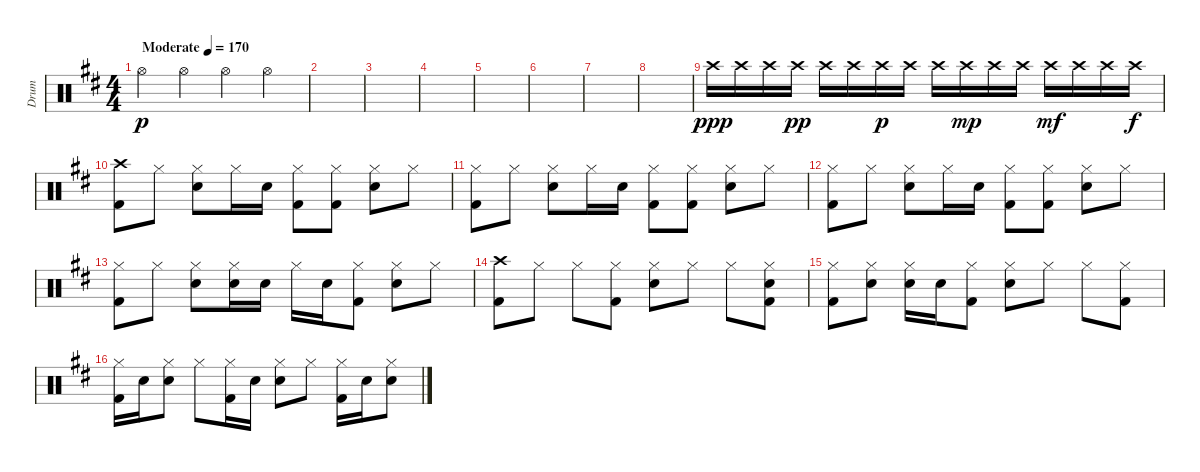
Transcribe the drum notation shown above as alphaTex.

\track ("Drum" "Drum") {instrument percussion}
\staff {score}
\articulation defaults
\ts (4 4)
\tempo (170 "Moderate")
\clef neutral
\ks d "Hi-Hat (open)".4{dy p} "Hi-Hat (open)".4 "Hi-Hat (open)".4 "Hi-Hat (open)".4
|
|
|
|
|
|
|
|
"Crash high (hit)".16{dy ppp volume 13} "Crash high (hit)".16 "Crash high (hit)".16 "Crash high (hit)".16{dy pp} "Crash high (hit)".16 "Crash high (hit)".16 "Crash high (hit)".16{dy p} "Crash high (hit)".16 "Crash high (hit)".16 "Crash high (hit)".16{dy mp} "Crash high (hit)".16 "Crash high (hit)".16 "Crash high (hit)".16{dy mf} "Crash high (hit)".16 "Crash high (hit)".16 "Crash high (hit)".16{dy f} |
("Crash high (hit)" "Kick (hit) 2").8 "Hi-Hat (closed)".8 ("Hi-Hat (closed)" "Electric Snare (hit)").8 "Hi-Hat (closed)".16 "Electric Snare (hit)".16 ("Hi-Hat (closed)" "Kick (hit) 2").8 ("Hi-Hat (closed)" "Kick (hit) 2").8 ("Hi-Hat (closed)" "Electric Snare (hit)").8 "Hi-Hat (closed)".8 |
("Hi-Hat (closed)" "Kick (hit) 2").8 "Hi-Hat (closed)".8 ("Hi-Hat (closed)" "Electric Snare (hit)").8 "Hi-Hat (closed)".16 "Electric Snare (hit)".16 ("Hi-Hat (closed)" "Kick (hit) 2").8 ("Hi-Hat (closed)" "Kick (hit) 2").8 ("Hi-Hat (closed)" "Electric Snare (hit)").8 "Hi-Hat (closed)".8 |
("Hi-Hat (closed)" "Kick (hit) 2").8 "Hi-Hat (closed)".8 ("Hi-Hat (closed)" "Electric Snare (hit)").8 "Hi-Hat (closed)".16 "Electric Snare (hit)".16 ("Hi-Hat (closed)" "Kick (hit) 2").8 ("Hi-Hat (closed)" "Kick (hit) 2").8 ("Hi-Hat (closed)" "Electric Snare (hit)").8 "Hi-Hat (closed)".8 |
("Hi-Hat (closed)" "Kick (hit) 2").8 "Hi-Hat (closed)".8 ("Hi-Hat (closed)" "Electric Snare (hit)").8 ("Hi-Hat (closed)" "Electric Snare (hit)").16 "Electric Snare (hit)".16 "Hi-Hat (closed)".16 "Electric Snare (hit)".16 ("Hi-Hat (closed)" "Kick (hit) 2").8 ("Hi-Hat (closed)" "Electric Snare (hit)").8 "Hi-Hat (closed)".8 |
("Crash high (hit)" "Kick (hit) 2").8 "Hi-Hat (closed)".8 "Hi-Hat (closed)".8 ("Hi-Hat (closed)" "Kick (hit) 2").8 ("Hi-Hat (closed)" "Electric Snare (hit)").8 "Hi-Hat (closed)".8 "Hi-Hat (closed)".8 ("Hi-Hat (closed)" "Electric Snare (hit)" "Kick (hit) 2").8 |
("Hi-Hat (closed)" "Kick (hit) 2").8 ("Hi-Hat (closed)" "Electric Snare (hit)").8 ("Hi-Hat (closed)" "Electric Snare (hit)").16 "Electric Snare (hit)".16 ("Hi-Hat (closed)" "Kick (hit) 2").8 ("Hi-Hat (closed)" "Electric Snare (hit)").8 "Hi-Hat (closed)".8 "Hi-Hat (closed)".8 ("Hi-Hat (closed)" "Kick (hit) 2").8 |
("Hi-Hat (closed)" "Kick (hit) 2").16 "Electric Snare (hit)".16 ("Hi-Hat (closed)" "Electric Snare (hit)").8 "Hi-Hat (closed)".8 ("Hi-Hat (closed)" "Kick (hit) 2").16 "Electric Snare (hit)".16 ("Hi-Hat (closed)" "Electric Snare (hit)").8 "Hi-Hat (closed)".8 ("Hi-Hat (closed)" "Kick (hit) 2").16 "Electric Snare (hit)".16 ("Hi-Hat (closed)" "Electric Snare (hit)").8
